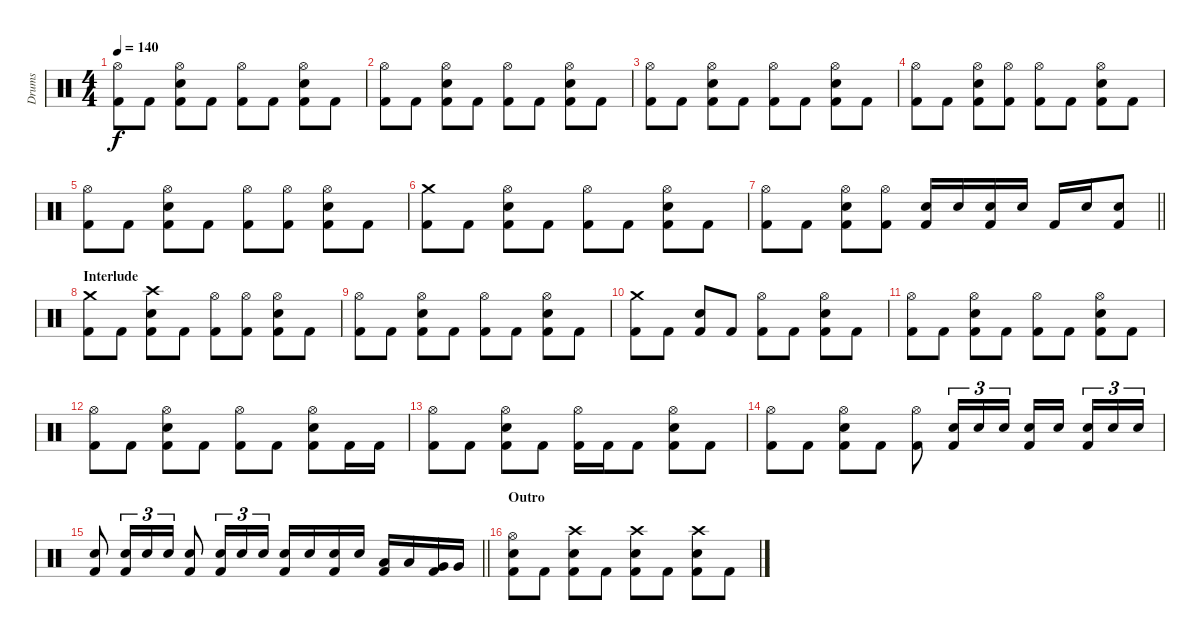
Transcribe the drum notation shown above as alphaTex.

\track ("Drums" "Drums") {instrument percussion}
\staff {score}
\articulation defaults
\ts (4 4)
\tempo 140
\clef neutral
\ks c
("Hi-Hat (open)" "Kick (hit) 2").8{dy f} "Kick (hit) 2".8 ("Hi-Hat (open)" "Snare (hit) 2" "Kick (hit) 2").8 "Kick (hit) 2".8 ("Hi-Hat (open)" "Kick (hit) 2").8 "Kick (hit) 2".8 ("Hi-Hat (open)" "Snare (hit) 2" "Kick (hit) 2").8 "Kick (hit) 2".8 |
("Hi-Hat (open)" "Kick (hit) 2").8 "Kick (hit) 2".8 ("Hi-Hat (open)" "Snare (hit) 2" "Kick (hit) 2").8 "Kick (hit) 2".8 ("Hi-Hat (open)" "Kick (hit) 2").8 "Kick (hit) 2".8 ("Hi-Hat (open)" "Snare (hit) 2" "Kick (hit) 2").8 "Kick (hit) 2".8 |
("Hi-Hat (open)" "Kick (hit) 2").8 "Kick (hit) 2".8 ("Hi-Hat (open)" "Snare (hit) 2" "Kick (hit) 2").8 "Kick (hit) 2".8 ("Hi-Hat (open)" "Kick (hit) 2").8 "Kick (hit) 2".8 ("Hi-Hat (open)" "Snare (hit) 2" "Kick (hit) 2").8 "Kick (hit) 2".8 |
("Hi-Hat (open)" "Kick (hit) 2").8 "Kick (hit) 2".8 ("Hi-Hat (open)" "Snare (hit) 2" "Kick (hit) 2").8 ("Hi-Hat (open)" "Kick (hit) 2").8 ("Hi-Hat (open)" "Kick (hit) 2").8 "Kick (hit) 2".8 ("Hi-Hat (open)" "Snare (hit) 2" "Kick (hit) 2").8 "Kick (hit) 2".8 |
("Hi-Hat (open)" "Kick (hit) 2").8 "Kick (hit) 2".8 ("Hi-Hat (open)" "Snare (hit) 2" "Kick (hit) 2").8 "Kick (hit) 2".8 ("Hi-Hat (open)" "Kick (hit) 2").8 ("Hi-Hat (open)" "Kick (hit) 2").8 ("Hi-Hat (open)" "Snare (hit) 2" "Kick (hit) 2").8 "Kick (hit) 2".8 |
("Crash medium (hit)" "Kick (hit) 2").8 "Kick (hit) 2".8 ("Hi-Hat (open)" "Snare (hit) 2" "Kick (hit) 2").8 "Kick (hit) 2".8 ("Hi-Hat (open)" "Kick (hit) 2").8 "Kick (hit) 2".8 ("Hi-Hat (open)" "Snare (hit) 2" "Kick (hit) 2").8 "Kick (hit) 2".8 |
\barLineRight lightlight
("Hi-Hat (open)" "Kick (hit) 2").8 "Kick (hit) 2".8 ("Hi-Hat (open)" "Snare (hit) 2" "Kick (hit) 2").8 ("Hi-Hat (open)" "Kick (hit) 2").8 ("Snare (hit) 2" "Kick (hit) 2").16 "Snare (hit) 2".16 ("Snare (hit) 2" "Kick (hit) 2").16 "Snare (hit) 2".16 "Kick (hit) 2".16 "Snare (hit) 2".16 ("Snare (hit) 2" "Kick (hit) 2").8 |
\section ("" "Interlude")
("Crash medium (hit)" "Kick (hit) 2").8 "Kick (hit) 2".8 ("Crash high (hit)" "Snare (hit) 2" "Kick (hit) 2").8 "Kick (hit) 2".8 ("Hi-Hat (open)" "Kick (hit) 2").8 ("Hi-Hat (open)" "Kick (hit) 2").8 ("Hi-Hat (open)" "Snare (hit) 2" "Kick (hit) 2").8 "Kick (hit) 2".8 |
("Hi-Hat (open)" "Kick (hit) 2").8 "Kick (hit) 2".8 ("Hi-Hat (open)" "Snare (hit) 2" "Kick (hit) 2").8 "Kick (hit) 2".8 ("Hi-Hat (open)" "Kick (hit) 2").8 "Kick (hit) 2".8 ("Hi-Hat (open)" "Snare (hit) 2" "Kick (hit) 2").8 "Kick (hit) 2".8 |
("Crash medium (hit)" "Kick (hit) 2").8 "Kick (hit) 2".8 ("Snare (hit) 2" "Kick (hit) 2").8 "Kick (hit) 2".8 ("Hi-Hat (open)" "Kick (hit) 2").8 "Kick (hit) 2".8 ("Hi-Hat (open)" "Snare (hit) 2" "Kick (hit) 2").8 "Kick (hit) 2".8 |
("Hi-Hat (open)" "Kick (hit) 2").8 "Kick (hit) 2".8 ("Hi-Hat (open)" "Snare (hit) 2" "Kick (hit) 2").8 "Kick (hit) 2".8 ("Hi-Hat (open)" "Kick (hit) 2").8 "Kick (hit) 2".8 ("Hi-Hat (open)" "Snare (hit) 2" "Kick (hit) 2").8 "Kick (hit) 2".8 |
("Hi-Hat (open)" "Kick (hit) 2").8 "Kick (hit) 2".8 ("Hi-Hat (open)" "Snare (hit) 2" "Kick (hit) 2").8 "Kick (hit) 2".8 ("Hi-Hat (open)" "Kick (hit) 2").8 "Kick (hit) 2".8 ("Hi-Hat (open)" "Snare (hit) 2" "Kick (hit) 2").8 "Kick (hit) 2".16 "Kick (hit) 2".16 |
("Hi-Hat (open)" "Kick (hit) 2").8 "Kick (hit) 2".8 ("Hi-Hat (open)" "Snare (hit) 2" "Kick (hit) 2").8 "Kick (hit) 2".8 ("Hi-Hat (open)" "Kick (hit) 2").16 "Kick (hit) 2".16 "Kick (hit) 2".8 ("Hi-Hat (open)" "Snare (hit) 2" "Kick (hit) 2").8 "Kick (hit) 2".8 |
("Hi-Hat (open)" "Kick (hit) 2").8 "Kick (hit) 2".8 ("Hi-Hat (open)" "Snare (hit) 2" "Kick (hit) 2").8 "Kick (hit) 2".8 ("Hi-Hat (open)" "Kick (hit) 2").8 ("Snare (hit) 2" "Kick (hit) 2").16{tu (3 2)} "Snare (hit) 2".16{tu (3 2)} "Snare (hit) 2".16{tu (3 2)} ("Snare (hit) 2" "Kick (hit) 2").16 "Snare (hit) 2".16{beam splitsecondary} ("Snare (hit) 2" "Kick (hit) 2").16{tu (3 2)} "Snare (hit) 2".16{tu (3 2)} "Snare (hit) 2".16{tu (3 2)} |
\barLineRight lightlight
("Snare (hit) 2" "Kick (hit) 2").8 ("Snare (hit) 2" "Kick (hit) 2").16{tu (3 2)} "Snare (hit) 2".16{tu (3 2)} "Snare (hit) 2".16{tu (3 2)} ("Snare (hit) 2" "Kick (hit) 2").8 ("Snare (hit) 2" "Kick (hit) 2").16{tu (3 2)} "Snare (hit) 2".16{tu (3 2)} "Snare (hit) 2".16{tu (3 2)} ("Snare (hit) 2" "Kick (hit) 2").16 "Snare (hit) 2".16 ("Snare (hit) 2" "Kick (hit) 2").16 "Snare (hit) 2".16 ("Low Tom (hit)" "Kick (hit) 2").16 "Low Tom (hit)".16 ("Very Low Tom (hit)" "Kick (hit) 2").16 "Very Low Tom (hit)".16 |
\section ("" "Outro")
("Hi-Hat (open)" "Snare (hit) 2" "Kick (hit) 2").8 "Kick (hit) 2".8 ("Crash high (hit)" "Snare (hit) 2" "Kick (hit) 2").8 "Kick (hit) 2".8 ("Crash high (hit)" "Snare (hit) 2" "Kick (hit) 2").8 "Kick (hit) 2".8 ("Crash high (hit)" "Snare (hit) 2" "Kick (hit) 2").8 "Kick (hit) 2".8
